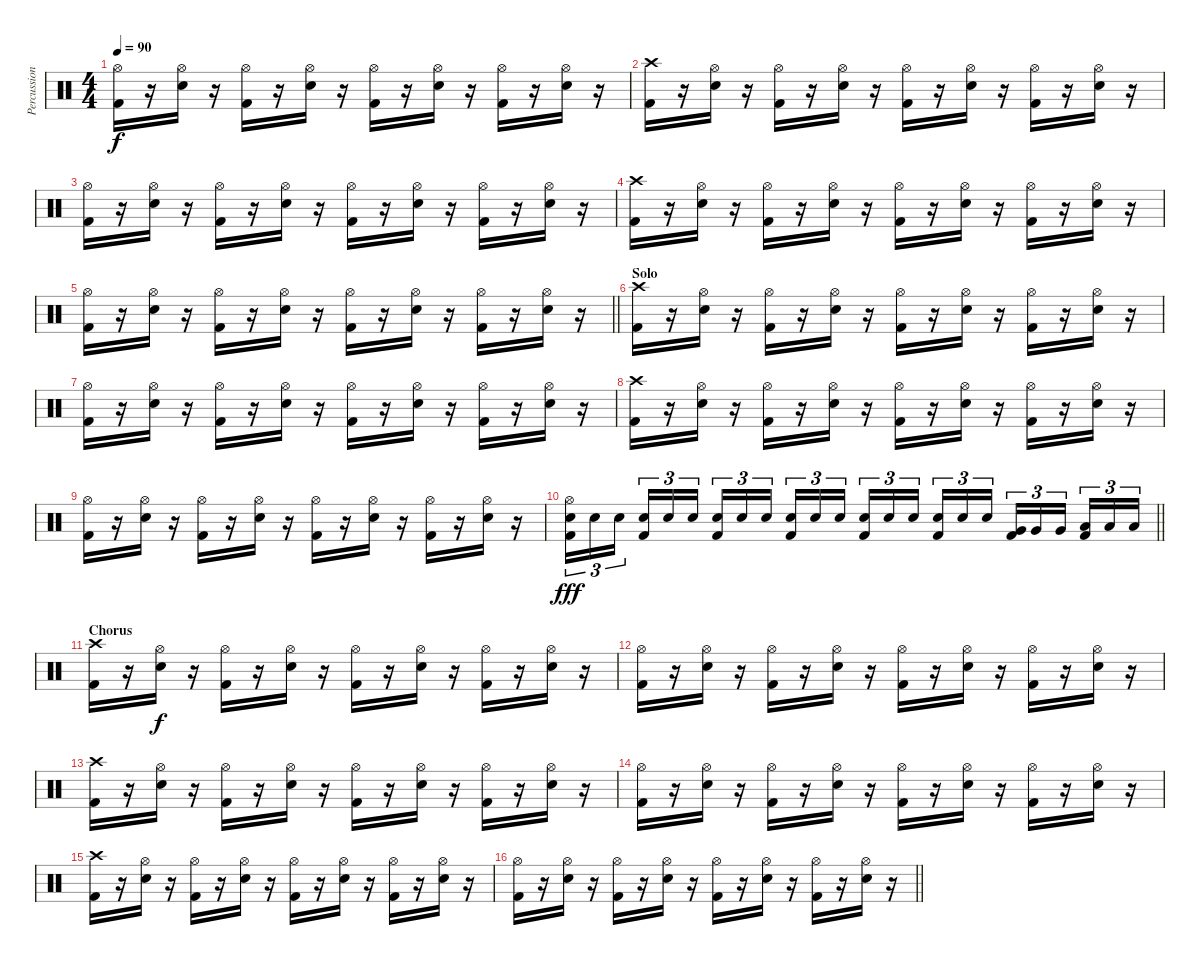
\track ("Percussion" "Percussion") {instrument percussion}
\staff {score}
\articulation defaults
\ts (4 4)
\tempo 90
\clef neutral
\ks c
("Hi-Hat (open)" "Kick (hit) 2").16{dy f} r.16 ("Hi-Hat (open)" "Electric Snare (hit)").16 r.16 ("Hi-Hat (open)" "Kick (hit) 2").16 r.16 ("Hi-Hat (open)" "Electric Snare (hit)").16 r.16 ("Hi-Hat (open)" "Kick (hit) 2").16 r.16 ("Hi-Hat (open)" "Electric Snare (hit)").16 r.16 ("Hi-Hat (open)" "Kick (hit) 2").16 r.16 ("Hi-Hat (open)" "Electric Snare (hit)").16 r.16 |
("Crash high (hit)" "Kick (hit) 2").16 r.16 ("Hi-Hat (open)" "Electric Snare (hit)").16 r.16 ("Hi-Hat (open)" "Kick (hit) 2").16 r.16 ("Hi-Hat (open)" "Electric Snare (hit)").16 r.16 ("Hi-Hat (open)" "Kick (hit) 2").16 r.16 ("Hi-Hat (open)" "Electric Snare (hit)").16 r.16 ("Hi-Hat (open)" "Kick (hit) 2").16 r.16 ("Hi-Hat (open)" "Electric Snare (hit)").16 r.16 |
("Hi-Hat (open)" "Kick (hit) 2").16 r.16 ("Hi-Hat (open)" "Electric Snare (hit)").16 r.16 ("Hi-Hat (open)" "Kick (hit) 2").16 r.16 ("Hi-Hat (open)" "Electric Snare (hit)").16 r.16 ("Hi-Hat (open)" "Kick (hit) 2").16 r.16 ("Hi-Hat (open)" "Electric Snare (hit)").16 r.16 ("Hi-Hat (open)" "Kick (hit) 2").16 r.16 ("Hi-Hat (open)" "Electric Snare (hit)").16 r.16 |
("Crash high (hit)" "Kick (hit) 2").16 r.16 ("Hi-Hat (open)" "Electric Snare (hit)").16 r.16 ("Hi-Hat (open)" "Kick (hit) 2").16 r.16 ("Hi-Hat (open)" "Electric Snare (hit)").16 r.16 ("Hi-Hat (open)" "Kick (hit) 2").16 r.16 ("Hi-Hat (open)" "Electric Snare (hit)").16 r.16 ("Hi-Hat (open)" "Kick (hit) 2").16 r.16 ("Hi-Hat (open)" "Electric Snare (hit)").16 r.16 |
\barLineRight lightlight
("Hi-Hat (open)" "Kick (hit) 2").16 r.16 ("Hi-Hat (open)" "Electric Snare (hit)").16 r.16 ("Hi-Hat (open)" "Kick (hit) 2").16 r.16 ("Hi-Hat (open)" "Electric Snare (hit)").16 r.16 ("Hi-Hat (open)" "Kick (hit) 2").16 r.16 ("Hi-Hat (open)" "Electric Snare (hit)").16 r.16 ("Hi-Hat (open)" "Kick (hit) 2").16 r.16 ("Hi-Hat (open)" "Electric Snare (hit)").16 r.16 |
\section ("" "Solo")
("Crash high (hit)" "Kick (hit) 2").16 r.16 ("Hi-Hat (open)" "Electric Snare (hit)").16 r.16 ("Hi-Hat (open)" "Kick (hit) 2").16 r.16 ("Hi-Hat (open)" "Electric Snare (hit)").16 r.16 ("Hi-Hat (open)" "Kick (hit) 2").16 r.16 ("Hi-Hat (open)" "Electric Snare (hit)").16 r.16 ("Hi-Hat (open)" "Kick (hit) 2").16 r.16 ("Hi-Hat (open)" "Electric Snare (hit)").16 r.16 |
("Hi-Hat (open)" "Kick (hit) 2").16 r.16 ("Hi-Hat (open)" "Electric Snare (hit)").16 r.16 ("Hi-Hat (open)" "Kick (hit) 2").16 r.16 ("Hi-Hat (open)" "Electric Snare (hit)").16 r.16 ("Hi-Hat (open)" "Kick (hit) 2").16 r.16 ("Hi-Hat (open)" "Electric Snare (hit)").16 r.16 ("Hi-Hat (open)" "Kick (hit) 2").16 r.16 ("Hi-Hat (open)" "Electric Snare (hit)").16 r.16 |
("Crash high (hit)" "Kick (hit) 2").16 r.16 ("Hi-Hat (open)" "Electric Snare (hit)").16 r.16 ("Hi-Hat (open)" "Kick (hit) 2").16 r.16 ("Hi-Hat (open)" "Electric Snare (hit)").16 r.16 ("Hi-Hat (open)" "Kick (hit) 2").16 r.16 ("Hi-Hat (open)" "Electric Snare (hit)").16 r.16 ("Hi-Hat (open)" "Kick (hit) 2").16 r.16 ("Hi-Hat (open)" "Electric Snare (hit)").16 r.16 |
("Hi-Hat (open)" "Kick (hit) 2").16 r.16 ("Hi-Hat (open)" "Electric Snare (hit)").16 r.16 ("Hi-Hat (open)" "Kick (hit) 2").16 r.16 ("Hi-Hat (open)" "Electric Snare (hit)").16 r.16 ("Hi-Hat (open)" "Kick (hit) 2").16 r.16 ("Hi-Hat (open)" "Electric Snare (hit)").16 r.16 ("Hi-Hat (open)" "Kick (hit) 2").16 r.16 ("Hi-Hat (open)" "Electric Snare (hit)").16 r.16 |
\barLineRight lightlight
("Hi-Hat (open)" "Electric Snare (hit)" "Kick (hit) 2").16{tu (3 2) dy fff} "Electric Snare (hit)".16{tu (3 2)} "Electric Snare (hit)".16{tu (3 2) beam splitsecondary} ("Electric Snare (hit)" "Kick (hit) 2").16{tu (3 2)} "Electric Snare (hit)".16{tu (3 2)} "Electric Snare (hit)".16{tu (3 2)} ("Electric Snare (hit)" "Kick (hit) 2").16{tu (3 2)} "Electric Snare (hit)".16{tu (3 2)} "Electric Snare (hit)".16{tu (3 2) beam splitsecondary} ("Electric Snare (hit)" "Kick (hit) 2").16{tu (3 2)} "Electric Snare (hit)".16{tu (3 2)} "Electric Snare (hit)".16{tu (3 2)} ("Electric Snare (hit)" "Kick (hit) 2").16{tu (3 2)} "Electric Snare (hit)".16{tu (3 2)} "Electric Snare (hit)".16{tu (3 2) beam splitsecondary} ("Electric Snare (hit)" "Kick (hit) 2").16{tu (3 2)} "Electric Snare (hit)".16{tu (3 2)} "Electric Snare (hit)".16{tu (3 2)} ("Very Low Tom (hit)" "Kick (hit) 2").16{tu (3 2)} "Very Low Tom (hit)".16{tu (3 2)} "Very Low Tom (hit)".16{tu (3 2) beam splitsecondary} ("Low Floor Tom (hit)" "Kick (hit) 2").16{tu (3 2)} "Low Floor Tom (hit)".16{tu (3 2)} "Low Floor Tom (hit)".16{tu (3 2)} |
\section ("" "Chorus")
("Crash high (hit)" "Kick (hit) 2").16 r.16 ("Hi-Hat (open)" "Electric Snare (hit)").16{dy f} r.16 ("Hi-Hat (open)" "Kick (hit) 2").16 r.16 ("Hi-Hat (open)" "Electric Snare (hit)").16 r.16 ("Hi-Hat (open)" "Kick (hit) 2").16 r.16 ("Hi-Hat (open)" "Electric Snare (hit)").16 r.16 ("Hi-Hat (open)" "Kick (hit) 2").16 r.16 ("Hi-Hat (open)" "Electric Snare (hit)").16 r.16 |
("Hi-Hat (open)" "Kick (hit) 2").16 r.16 ("Hi-Hat (open)" "Electric Snare (hit)").16 r.16 ("Hi-Hat (open)" "Kick (hit) 2").16 r.16 ("Hi-Hat (open)" "Electric Snare (hit)").16 r.16 ("Hi-Hat (open)" "Kick (hit) 2").16 r.16 ("Hi-Hat (open)" "Electric Snare (hit)").16 r.16 ("Hi-Hat (open)" "Kick (hit) 2").16 r.16 ("Hi-Hat (open)" "Electric Snare (hit)").16 r.16 |
("Crash high (hit)" "Kick (hit) 2").16 r.16 ("Hi-Hat (open)" "Electric Snare (hit)").16 r.16 ("Hi-Hat (open)" "Kick (hit) 2").16 r.16 ("Hi-Hat (open)" "Electric Snare (hit)").16 r.16 ("Hi-Hat (open)" "Kick (hit) 2").16 r.16 ("Hi-Hat (open)" "Electric Snare (hit)").16 r.16 ("Hi-Hat (open)" "Kick (hit) 2").16 r.16 ("Hi-Hat (open)" "Electric Snare (hit)").16 r.16 |
("Hi-Hat (open)" "Kick (hit) 2").16 r.16 ("Hi-Hat (open)" "Electric Snare (hit)").16 r.16 ("Hi-Hat (open)" "Kick (hit) 2").16 r.16 ("Hi-Hat (open)" "Electric Snare (hit)").16 r.16 ("Hi-Hat (open)" "Kick (hit) 2").16 r.16 ("Hi-Hat (open)" "Electric Snare (hit)").16 r.16 ("Hi-Hat (open)" "Kick (hit) 2").16 r.16 ("Hi-Hat (open)" "Electric Snare (hit)").16 r.16 |
("Crash high (hit)" "Kick (hit) 2").16 r.16 ("Hi-Hat (open)" "Electric Snare (hit)").16 r.16 ("Hi-Hat (open)" "Kick (hit) 2").16 r.16 ("Hi-Hat (open)" "Electric Snare (hit)").16 r.16 ("Hi-Hat (open)" "Kick (hit) 2").16 r.16 ("Hi-Hat (open)" "Electric Snare (hit)").16 r.16 ("Hi-Hat (open)" "Kick (hit) 2").16 r.16 ("Hi-Hat (open)" "Electric Snare (hit)").16 r.16 |
\barLineRight lightlight
("Hi-Hat (open)" "Kick (hit) 2").16 r.16 ("Hi-Hat (open)" "Electric Snare (hit)").16 r.16 ("Hi-Hat (open)" "Kick (hit) 2").16 r.16 ("Hi-Hat (open)" "Electric Snare (hit)").16 r.16 ("Hi-Hat (open)" "Kick (hit) 2").16 r.16 ("Hi-Hat (open)" "Electric Snare (hit)").16 r.16 ("Hi-Hat (open)" "Kick (hit) 2").16 r.16 ("Hi-Hat (open)" "Electric Snare (hit)").16 r.16
